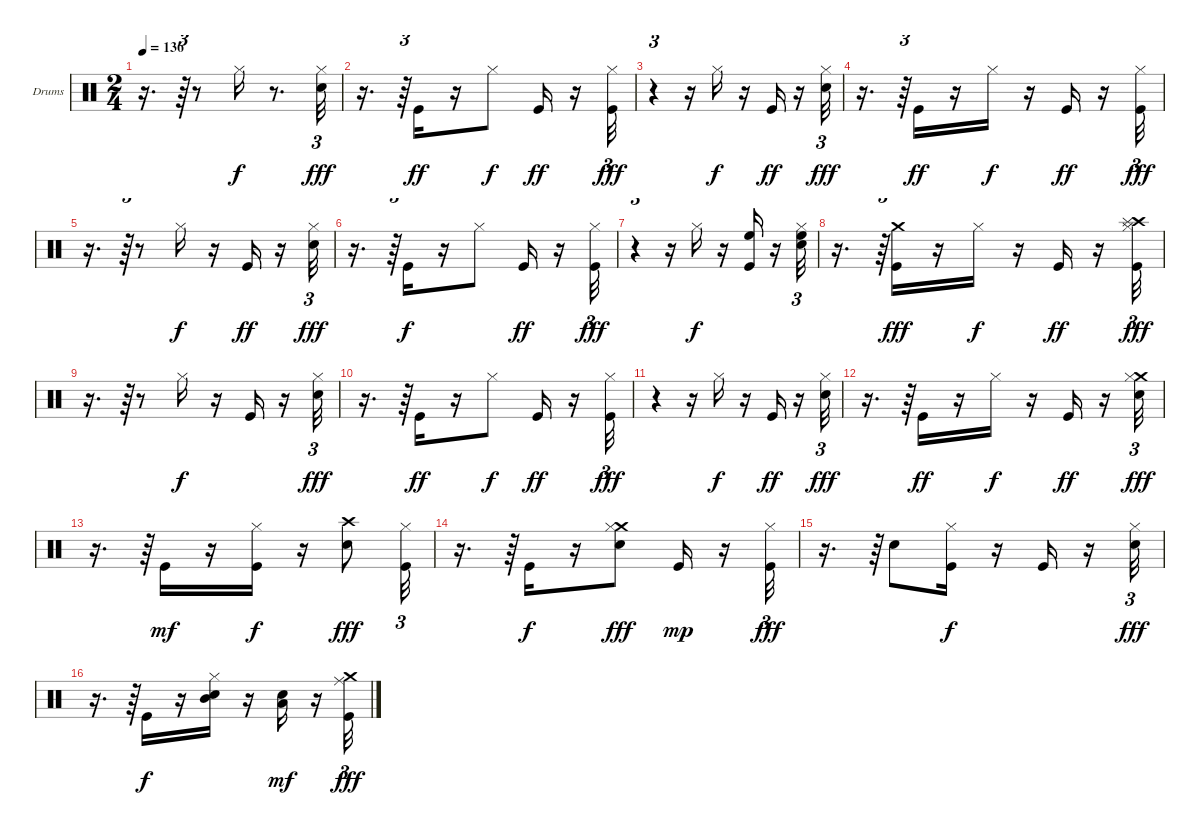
\bracketExtendMode groupsimilarinstruments
\firstSystemTrackNameOrientation horizontal
\otherSystemsTrackNameOrientation horizontal
\track ("Drumkit" "Drums") {solo instrument percussion}
\staff {score}
\articulation defaults
\ts (2 4)
\tempo 136
\clef neutral
\ks c
r.16{d dy fff} r.64{tu (3 2)} r.8 "Hi-Hat (closed)".16{dy f} r.8{d} ("Hi-Hat (closed)" "Snare (hit) 2").32{tu (3 2) dy fff} |
r.16{d} r.64{tu (3 2)} "Kick (hit)".16{dy ff} r.16 "Hi-Hat (closed)".8{dy f} "Kick (hit)".16{dy ff} r.16 ("Hi-Hat (closed)" "Kick (hit)").32{tu (3 2) dy fff} |
r.4{tu (3 2)} r.16 "Hi-Hat (closed)".16{dy f} r.16 "Kick (hit)".16{dy ff} r.16 ("Hi-Hat (closed)" "Snare (hit) 2").32{tu (3 2) dy fff} |
r.16{d} r.64{tu (3 2)} "Kick (hit)".16{dy ff} r.16 "Hi-Hat (closed)".16{dy f} r.16 "Kick (hit)".16{dy ff} r.16 ("Hi-Hat (closed)" "Kick (hit)").32{tu (3 2) dy fff} |
r.16{d} r.64{tu (3 2)} r.8 "Hi-Hat (closed)".16{dy f} r.16 "Kick (hit)".16{dy ff} r.16 ("Hi-Hat (closed)" "Snare (hit) 2").32{tu (3 2) dy fff} |
r.16{d} r.64{tu (3 2)} "Kick (hit)".16{dy f} r.16 "Hi-Hat (closed)".8 "Kick (hit)".16{dy ff} r.16 ("Hi-Hat (closed)" "Kick (hit)").32{tu (3 2) dy fff} |
r.4{tu (3 2)} r.16 "Hi-Hat (closed)".16{dy f} r.16 ("High Floor Tom (hit)" "Kick (hit)").16 r.16 ("High Floor Tom (hit)" "Hi-Hat (closed)" "Snare (hit) 2").32{tu (3 2)} |
r.16{d} r.64{tu (3 2)} ("Crash medium (hit)" "Kick (hit)").16{dy fff} r.16 "Hi-Hat (closed)".16{dy f} r.16 "Kick (hit)".16{dy ff} r.16 ("Crash high (hit)" "Splash (hit)" "Hi-Hat (closed)" "Kick (hit)").32{tu (3 2) dy fff} |
r.16{d} r.64{tu (3 2)} r.8 "Hi-Hat (closed)".16{dy f} r.16 "Kick (hit)".16 r.16 ("Hi-Hat (closed)" "Snare (hit) 2").32{tu (3 2) dy fff} |
r.16{d} r.64{tu (3 2)} "Kick (hit)".16{dy ff} r.16 "Hi-Hat (closed)".8{dy f} "Kick (hit)".16{dy ff} r.16 ("Hi-Hat (closed)" "Kick (hit)").32{tu (3 2) dy fff} |
r.4{tu (3 2)} r.16 "Hi-Hat (closed)".16{dy f} r.16 "Kick (hit)".16{dy ff} r.16 ("Hi-Hat (closed)" "Snare (hit) 2").32{tu (3 2) dy fff} |
r.16{d} r.64{tu (3 2)} "Kick (hit)".16{dy ff} r.16 "Hi-Hat (closed)".16{dy f} r.16 "Kick (hit)".16{dy ff} r.16 ("Crash medium (hit)" "Hi-Hat (closed)" "Snare (hit) 2").32{tu (3 2) dy fff} |
r.16{d} r.64{tu (3 2)} "Kick (hit)".16{dy mf} r.16 ("Hi-Hat (closed)" "Kick (hit)").16{dy f} r.16 ("Snare (hit) 2" "Crash high (hit)").8{dy fff} ("Hi-Hat (closed)" "Kick (hit)").32{tu (3 2)} |
r.16{d} r.64{tu (3 2)} "Kick (hit)".16{dy f} r.16 ("Crash medium (hit)" "Hi-Hat (closed)" "Snare (hit) 2").8{dy fff} "Kick (hit)".16{dy mp} r.16 ("Hi-Hat (closed)" "Kick (hit)").32{tu (3 2) dy fff} |
r.16{d} r.64{tu (3 2)} "Snare (hit) 2".8 ("Hi-Hat (closed)" "Kick (hit)").16{dy f} r.16 "Kick (hit)".16 r.16 ("Hi-Hat (closed)" "Snare (hit) 2").32{tu (3 2) dy fff} |
r.16{d} r.64{tu (3 2)} "Kick (hit)".16{dy f} r.16 ("Hi-Hat (closed)" "Snare (hit) 2" "Mid Tom (hit)").16 r.16 ("Low Tom (hit)" "Snare (hit) 2").16{dy mf} r.16 ("Crash medium (hit)" "Ride (middle)" "Kick (hit)").32{tu (3 2) dy fff}
